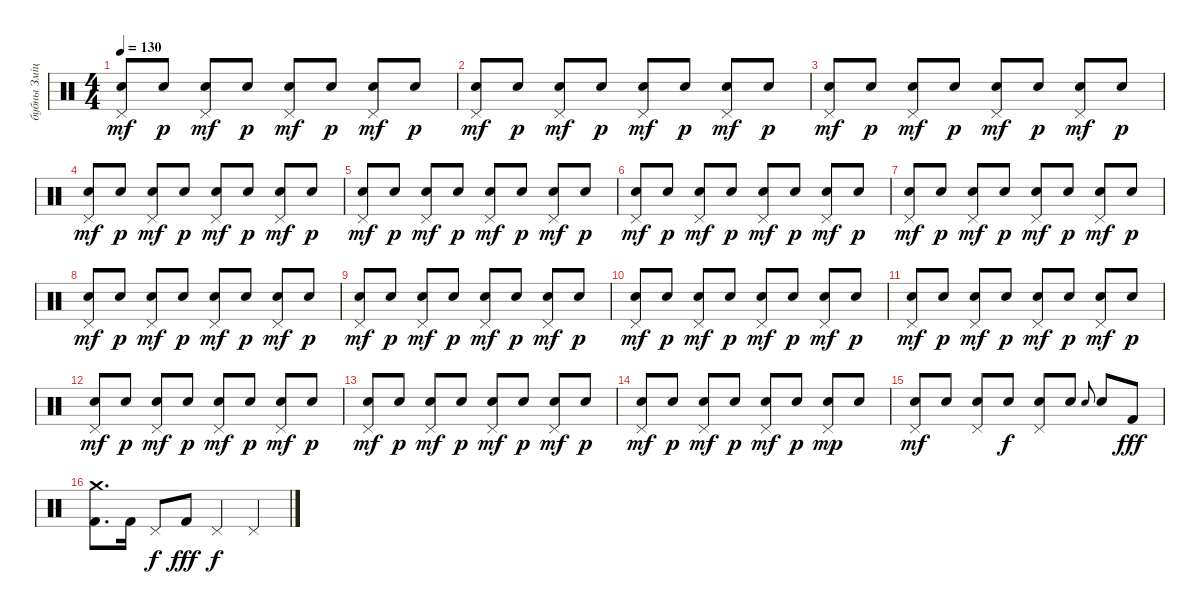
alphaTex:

\track ("бубны Змiцер" "бубны Змiц") {instrument percussion}
\staff {score}
\articulation defaults
\ts (4 4)
\tempo 130
\clef neutral
\ks c
("Electric Snare (hit)" "Pedal Hi-Hat (hit)").8{dy mf} "Electric Snare (hit)".8{dy p} ("Electric Snare (hit)" "Pedal Hi-Hat (hit)").8{dy mf} "Electric Snare (hit)".8{dy p} ("Electric Snare (hit)" "Pedal Hi-Hat (hit)").8{dy mf} "Electric Snare (hit)".8{dy p} ("Electric Snare (hit)" "Pedal Hi-Hat (hit)").8{dy mf} "Electric Snare (hit)".8{dy p} |
("Electric Snare (hit)" "Pedal Hi-Hat (hit)").8{dy mf} "Electric Snare (hit)".8{dy p} ("Electric Snare (hit)" "Pedal Hi-Hat (hit)").8{dy mf} "Electric Snare (hit)".8{dy p} ("Electric Snare (hit)" "Pedal Hi-Hat (hit)").8{dy mf} "Electric Snare (hit)".8{dy p} ("Electric Snare (hit)" "Pedal Hi-Hat (hit)").8{dy mf} "Electric Snare (hit)".8{dy p} |
("Electric Snare (hit)" "Pedal Hi-Hat (hit)").8{dy mf} "Electric Snare (hit)".8{dy p} ("Electric Snare (hit)" "Pedal Hi-Hat (hit)").8{dy mf} "Electric Snare (hit)".8{dy p} ("Electric Snare (hit)" "Pedal Hi-Hat (hit)").8{dy mf} "Electric Snare (hit)".8{dy p} ("Electric Snare (hit)" "Pedal Hi-Hat (hit)").8{dy mf} "Electric Snare (hit)".8{dy p} |
("Electric Snare (hit)" "Pedal Hi-Hat (hit)").8{dy mf} "Electric Snare (hit)".8{dy p} ("Electric Snare (hit)" "Pedal Hi-Hat (hit)").8{dy mf} "Electric Snare (hit)".8{dy p} ("Electric Snare (hit)" "Pedal Hi-Hat (hit)").8{dy mf} "Electric Snare (hit)".8{dy p} ("Electric Snare (hit)" "Pedal Hi-Hat (hit)").8{dy mf} "Electric Snare (hit)".8{dy p} |
("Electric Snare (hit)" "Pedal Hi-Hat (hit)").8{dy mf} "Electric Snare (hit)".8{dy p} ("Electric Snare (hit)" "Pedal Hi-Hat (hit)").8{dy mf} "Electric Snare (hit)".8{dy p} ("Electric Snare (hit)" "Pedal Hi-Hat (hit)").8{dy mf} "Electric Snare (hit)".8{dy p} ("Electric Snare (hit)" "Pedal Hi-Hat (hit)").8{dy mf} "Electric Snare (hit)".8{dy p} |
("Electric Snare (hit)" "Pedal Hi-Hat (hit)").8{dy mf} "Electric Snare (hit)".8{dy p} ("Electric Snare (hit)" "Pedal Hi-Hat (hit)").8{dy mf} "Electric Snare (hit)".8{dy p} ("Electric Snare (hit)" "Pedal Hi-Hat (hit)").8{dy mf} "Electric Snare (hit)".8{dy p} ("Electric Snare (hit)" "Pedal Hi-Hat (hit)").8{dy mf} "Electric Snare (hit)".8{dy p} |
("Electric Snare (hit)" "Pedal Hi-Hat (hit)").8{dy mf} "Electric Snare (hit)".8{dy p} ("Electric Snare (hit)" "Pedal Hi-Hat (hit)").8{dy mf} "Electric Snare (hit)".8{dy p} ("Electric Snare (hit)" "Pedal Hi-Hat (hit)").8{dy mf} "Electric Snare (hit)".8{dy p} ("Electric Snare (hit)" "Pedal Hi-Hat (hit)").8{dy mf} "Electric Snare (hit)".8{dy p} |
("Electric Snare (hit)" "Pedal Hi-Hat (hit)").8{dy mf} "Electric Snare (hit)".8{dy p} ("Electric Snare (hit)" "Pedal Hi-Hat (hit)").8{dy mf} "Electric Snare (hit)".8{dy p} ("Electric Snare (hit)" "Pedal Hi-Hat (hit)").8{dy mf} "Electric Snare (hit)".8{dy p} ("Electric Snare (hit)" "Pedal Hi-Hat (hit)").8{dy mf} "Electric Snare (hit)".8{dy p} |
("Electric Snare (hit)" "Pedal Hi-Hat (hit)").8{dy mf} "Electric Snare (hit)".8{dy p} ("Electric Snare (hit)" "Pedal Hi-Hat (hit)").8{dy mf} "Electric Snare (hit)".8{dy p} ("Electric Snare (hit)" "Pedal Hi-Hat (hit)").8{dy mf} "Electric Snare (hit)".8{dy p} ("Electric Snare (hit)" "Pedal Hi-Hat (hit)").8{dy mf} "Electric Snare (hit)".8{dy p} |
("Electric Snare (hit)" "Pedal Hi-Hat (hit)").8{dy mf} "Electric Snare (hit)".8{dy p} ("Electric Snare (hit)" "Pedal Hi-Hat (hit)").8{dy mf} "Electric Snare (hit)".8{dy p} ("Electric Snare (hit)" "Pedal Hi-Hat (hit)").8{dy mf} "Electric Snare (hit)".8{dy p} ("Electric Snare (hit)" "Pedal Hi-Hat (hit)").8{dy mf} "Electric Snare (hit)".8{dy p} |
("Electric Snare (hit)" "Pedal Hi-Hat (hit)").8{dy mf} "Electric Snare (hit)".8{dy p} ("Electric Snare (hit)" "Pedal Hi-Hat (hit)").8{dy mf} "Electric Snare (hit)".8{dy p} ("Electric Snare (hit)" "Pedal Hi-Hat (hit)").8{dy mf} "Electric Snare (hit)".8{dy p} ("Electric Snare (hit)" "Pedal Hi-Hat (hit)").8{dy mf} "Electric Snare (hit)".8{dy p} |
("Electric Snare (hit)" "Pedal Hi-Hat (hit)").8{dy mf} "Electric Snare (hit)".8{dy p} ("Electric Snare (hit)" "Pedal Hi-Hat (hit)").8{dy mf} "Electric Snare (hit)".8{dy p} ("Electric Snare (hit)" "Pedal Hi-Hat (hit)").8{dy mf} "Electric Snare (hit)".8{dy p} ("Electric Snare (hit)" "Pedal Hi-Hat (hit)").8{dy mf} "Electric Snare (hit)".8{dy p} |
("Electric Snare (hit)" "Pedal Hi-Hat (hit)").8{dy mf} "Electric Snare (hit)".8{dy p} ("Electric Snare (hit)" "Pedal Hi-Hat (hit)").8{dy mf} "Electric Snare (hit)".8{dy p} ("Electric Snare (hit)" "Pedal Hi-Hat (hit)").8{dy mf} "Electric Snare (hit)".8{dy p} ("Electric Snare (hit)" "Pedal Hi-Hat (hit)").8{dy mf} "Electric Snare (hit)".8{dy p} |
("Electric Snare (hit)" "Pedal Hi-Hat (hit)").8{dy mf} "Electric Snare (hit)".8{dy p} ("Electric Snare (hit)" "Pedal Hi-Hat (hit)").8{dy mf} "Electric Snare (hit)".8{dy p} ("Electric Snare (hit)" "Pedal Hi-Hat (hit)").8{dy mf} "Electric Snare (hit)".8{dy p} ("Electric Snare (hit)" "Pedal Hi-Hat (hit)").8{dy mp} "Electric Snare (hit)".8 |
("Electric Snare (hit)" "Pedal Hi-Hat (hit)").8{dy mf} "Electric Snare (hit)".8 ("Electric Snare (hit)" "Pedal Hi-Hat (hit)").8 "Electric Snare (hit)".8{dy f} ("Electric Snare (hit)" "Pedal Hi-Hat (hit)").8 "Electric Snare (hit)".8 "Electric Snare (hit)".8{gr onbeat} "Electric Snare (hit)".8 "Kick (hit) 2".8{dy fff} |
("Crash medium (hit)" "Kick (hit) 2").8{d} "Kick (hit) 2".16 "Pedal Hi-Hat (hit)".8{dy f} "Kick (hit) 2".8{dy fff} "Pedal Hi-Hat (hit)".4{dy f} "Pedal Hi-Hat (hit)".4
